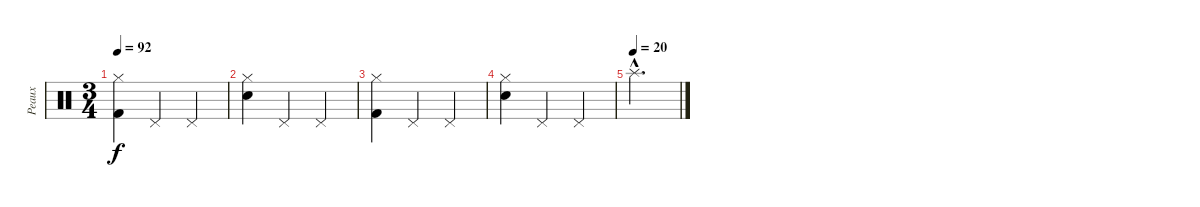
\track ("Peaux" "Peaux") {instrument percussion}
\staff {score}
\articulation defaults
\ts (3 4)
\tempo 92
\clef neutral
\ks c
("Hi-Hat (closed)" "Kick (hit) 2").4{dy f} "Pedal Hi-Hat (hit)".4 "Pedal Hi-Hat (hit)".4 |
("Hi-Hat (closed)" "Snare (hit) 2").4 "Pedal Hi-Hat (hit)".4 "Pedal Hi-Hat (hit)".4 |
("Hi-Hat (closed)" "Kick (hit) 2").4 "Pedal Hi-Hat (hit)".4 "Pedal Hi-Hat (hit)".4 |
("Hi-Hat (closed)" "Snare (hit) 2").4 "Pedal Hi-Hat (hit)".4 "Pedal Hi-Hat (hit)".4 |
\tempo (20)
"Splash (hit)"{hac}.2{d}
